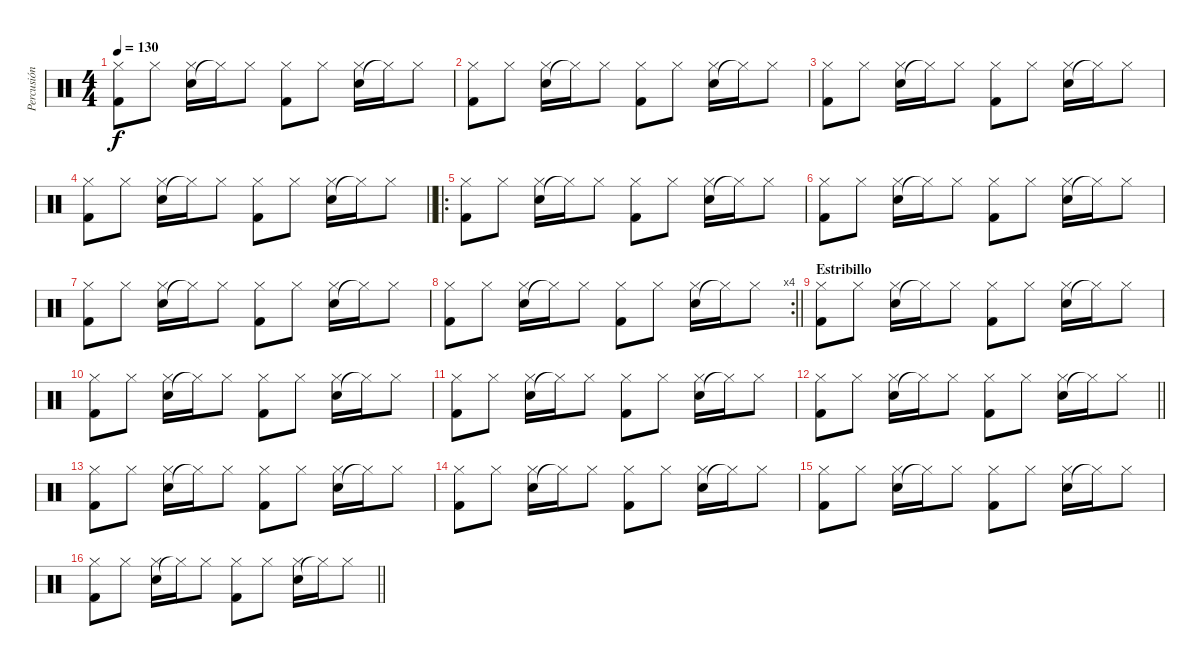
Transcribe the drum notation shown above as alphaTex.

\track ("Percusión" "Percusión") {instrument percussion}
\staff {score}
\articulation defaults
\ts (4 4)
\tempo 130
\clef neutral
\ks c
("Kick (hit) 2" "Hi-Hat (closed)").8{dy f} "Hi-Hat (closed)".8 ("Snare (hit) 2" "Hi-Hat (closed)").16 "Hi-Hat (closed)"{t}.16 "Hi-Hat (closed)".8 ("Kick (hit) 2" "Hi-Hat (closed)").8 "Hi-Hat (closed)".8 ("Snare (hit) 2" "Hi-Hat (closed)").16 "Hi-Hat (closed)"{t}.16 "Hi-Hat (closed)".8 |
("Kick (hit) 2" "Hi-Hat (closed)").8 "Hi-Hat (closed)".8 ("Snare (hit) 2" "Hi-Hat (closed)").16 "Hi-Hat (closed)"{t}.16 "Hi-Hat (closed)".8 ("Kick (hit) 2" "Hi-Hat (closed)").8 "Hi-Hat (closed)".8 ("Snare (hit) 2" "Hi-Hat (closed)").16 "Hi-Hat (closed)"{t}.16 "Hi-Hat (closed)".8 |
("Kick (hit) 2" "Hi-Hat (closed)").8 "Hi-Hat (closed)".8 ("Snare (hit) 2" "Hi-Hat (closed)").16 "Hi-Hat (closed)"{t}.16 "Hi-Hat (closed)".8 ("Kick (hit) 2" "Hi-Hat (closed)").8 "Hi-Hat (closed)".8 ("Snare (hit) 2" "Hi-Hat (closed)").16 "Hi-Hat (closed)"{t}.16 "Hi-Hat (closed)".8 |
\barLineRight lightlight
("Kick (hit) 2" "Hi-Hat (closed)").8 "Hi-Hat (closed)".8 ("Snare (hit) 2" "Hi-Hat (closed)").16 "Hi-Hat (closed)"{t}.16 "Hi-Hat (closed)".8 ("Kick (hit) 2" "Hi-Hat (closed)").8 "Hi-Hat (closed)".8 ("Snare (hit) 2" "Hi-Hat (closed)").16 "Hi-Hat (closed)"{t}.16 "Hi-Hat (closed)".8 |
\ro
("Kick (hit) 2" "Hi-Hat (closed)").8 "Hi-Hat (closed)".8 ("Snare (hit) 2" "Hi-Hat (closed)").16 "Hi-Hat (closed)"{t}.16 "Hi-Hat (closed)".8 ("Kick (hit) 2" "Hi-Hat (closed)").8 "Hi-Hat (closed)".8 ("Snare (hit) 2" "Hi-Hat (closed)").16 "Hi-Hat (closed)"{t}.16 "Hi-Hat (closed)".8 |
("Kick (hit) 2" "Hi-Hat (closed)").8 "Hi-Hat (closed)".8 ("Snare (hit) 2" "Hi-Hat (closed)").16 "Hi-Hat (closed)"{t}.16 "Hi-Hat (closed)".8 ("Kick (hit) 2" "Hi-Hat (closed)").8 "Hi-Hat (closed)".8 ("Snare (hit) 2" "Hi-Hat (closed)").16 "Hi-Hat (closed)"{t}.16 "Hi-Hat (closed)".8 |
("Kick (hit) 2" "Hi-Hat (closed)").8 "Hi-Hat (closed)".8 ("Snare (hit) 2" "Hi-Hat (closed)").16 "Hi-Hat (closed)"{t}.16 "Hi-Hat (closed)".8 ("Kick (hit) 2" "Hi-Hat (closed)").8 "Hi-Hat (closed)".8 ("Snare (hit) 2" "Hi-Hat (closed)").16 "Hi-Hat (closed)"{t}.16 "Hi-Hat (closed)".8 |
\rc 4
\barLineRight lightlight
("Kick (hit) 2" "Hi-Hat (closed)").8 "Hi-Hat (closed)".8 ("Snare (hit) 2" "Hi-Hat (closed)").16 "Hi-Hat (closed)"{t}.16 "Hi-Hat (closed)".8 ("Kick (hit) 2" "Hi-Hat (closed)").8 "Hi-Hat (closed)".8 ("Snare (hit) 2" "Hi-Hat (closed)").16 "Hi-Hat (closed)"{t}.16 "Hi-Hat (closed)".8 |
\section ("" "Estribillo")
("Kick (hit) 2" "Hi-Hat (closed)").8 "Hi-Hat (closed)".8 ("Snare (hit) 2" "Hi-Hat (closed)").16 "Hi-Hat (closed)"{t}.16 "Hi-Hat (closed)".8 ("Kick (hit) 2" "Hi-Hat (closed)").8 "Hi-Hat (closed)".8 ("Snare (hit) 2" "Hi-Hat (closed)").16 "Hi-Hat (closed)"{t}.16 "Hi-Hat (closed)".8 |
("Kick (hit) 2" "Hi-Hat (closed)").8 "Hi-Hat (closed)".8 ("Snare (hit) 2" "Hi-Hat (closed)").16 "Hi-Hat (closed)"{t}.16 "Hi-Hat (closed)".8 ("Kick (hit) 2" "Hi-Hat (closed)").8 "Hi-Hat (closed)".8 ("Snare (hit) 2" "Hi-Hat (closed)").16 "Hi-Hat (closed)"{t}.16 "Hi-Hat (closed)".8 |
("Kick (hit) 2" "Hi-Hat (closed)").8 "Hi-Hat (closed)".8 ("Snare (hit) 2" "Hi-Hat (closed)").16 "Hi-Hat (closed)"{t}.16 "Hi-Hat (closed)".8 ("Kick (hit) 2" "Hi-Hat (closed)").8 "Hi-Hat (closed)".8 ("Snare (hit) 2" "Hi-Hat (closed)").16 "Hi-Hat (closed)"{t}.16 "Hi-Hat (closed)".8 |
\barLineRight lightlight
("Kick (hit) 2" "Hi-Hat (closed)").8 "Hi-Hat (closed)".8 ("Snare (hit) 2" "Hi-Hat (closed)").16 "Hi-Hat (closed)"{t}.16 "Hi-Hat (closed)".8 ("Kick (hit) 2" "Hi-Hat (closed)").8 "Hi-Hat (closed)".8 ("Snare (hit) 2" "Hi-Hat (closed)").16 "Hi-Hat (closed)"{t}.16 "Hi-Hat (closed)".8 |
("Kick (hit) 2" "Hi-Hat (closed)").8 "Hi-Hat (closed)".8 ("Snare (hit) 2" "Hi-Hat (closed)").16 "Hi-Hat (closed)"{t}.16 "Hi-Hat (closed)".8 ("Kick (hit) 2" "Hi-Hat (closed)").8 "Hi-Hat (closed)".8 ("Snare (hit) 2" "Hi-Hat (closed)").16 "Hi-Hat (closed)"{t}.16 "Hi-Hat (closed)".8 |
("Kick (hit) 2" "Hi-Hat (closed)").8 "Hi-Hat (closed)".8 ("Snare (hit) 2" "Hi-Hat (closed)").16 "Hi-Hat (closed)"{t}.16 "Hi-Hat (closed)".8 ("Kick (hit) 2" "Hi-Hat (closed)").8 "Hi-Hat (closed)".8 ("Snare (hit) 2" "Hi-Hat (closed)").16 "Hi-Hat (closed)"{t}.16 "Hi-Hat (closed)".8 |
("Kick (hit) 2" "Hi-Hat (closed)").8 "Hi-Hat (closed)".8 ("Snare (hit) 2" "Hi-Hat (closed)").16 "Hi-Hat (closed)"{t}.16 "Hi-Hat (closed)".8 ("Kick (hit) 2" "Hi-Hat (closed)").8 "Hi-Hat (closed)".8 ("Snare (hit) 2" "Hi-Hat (closed)").16 "Hi-Hat (closed)"{t}.16 "Hi-Hat (closed)".8 |
\barLineRight lightlight
("Kick (hit) 2" "Hi-Hat (closed)").8 "Hi-Hat (closed)".8 ("Snare (hit) 2" "Hi-Hat (closed)").16 "Hi-Hat (closed)"{t}.16 "Hi-Hat (closed)".8 ("Kick (hit) 2" "Hi-Hat (closed)").8 "Hi-Hat (closed)".8 ("Snare (hit) 2" "Hi-Hat (closed)").16 "Hi-Hat (closed)"{t}.16 "Hi-Hat (closed)".8
